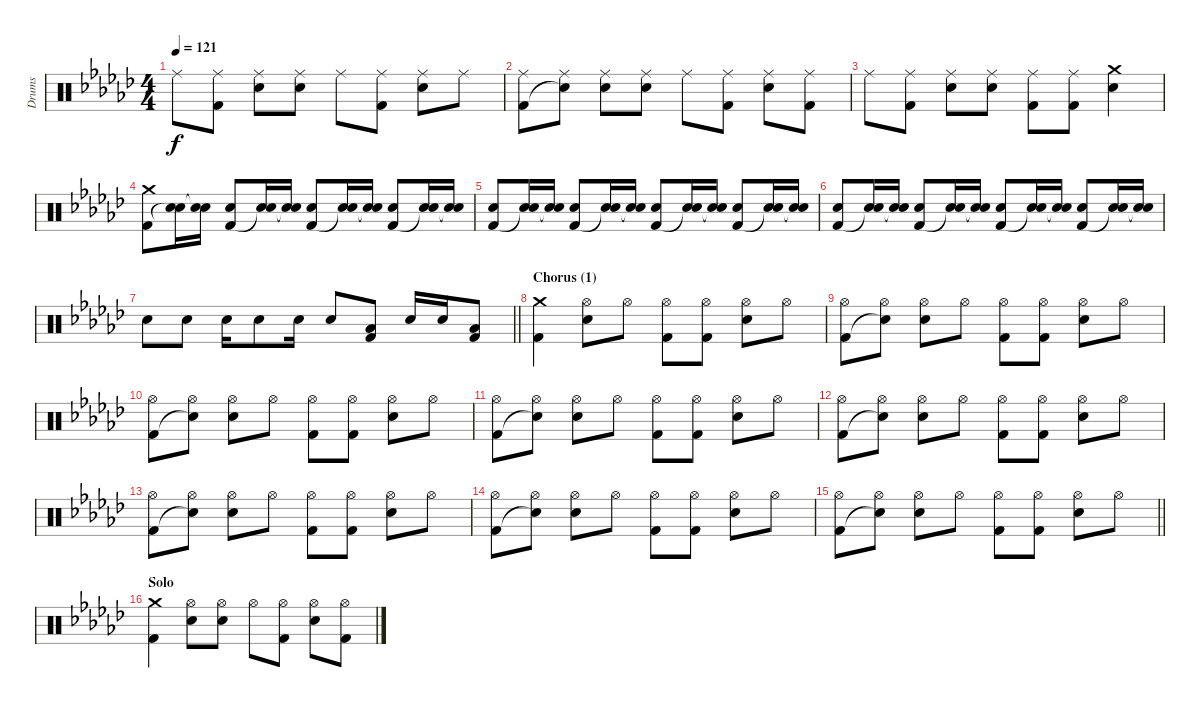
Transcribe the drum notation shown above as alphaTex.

\track ("Drums" "Drums") {instrument percussion}
\staff {score}
\articulation defaults
\ts (4 4)
\tempo 121
\clef neutral
\ks ebminor "Ride (middle)".8{dy f}
("Ride (middle)" "Kick (hit) 2").8 ("Ride (middle)" "Electric Snare (hit)").8 ("Ride (middle)" "Electric Snare (hit)").8 "Ride (middle)".8 ("Ride (middle)" "Kick (hit) 2").8 ("Ride (middle)" "Electric Snare (hit)").8 "Ride (middle)".8 |
("Ride (middle)" "Kick (hit) 2").8 ("Ride (middle)" "Snare (hit)"{t}).8 ("Ride (middle)" "Electric Snare (hit)").8 ("Ride (middle)" "Electric Snare (hit)").8 "Ride (middle)".8 ("Ride (middle)" "Kick (hit) 2").8 ("Ride (middle)" "Electric Snare (hit)").8 ("Ride (middle)" "Kick (hit) 2").8 |
"Ride (middle)".8 ("Ride (middle)" "Kick (hit) 2").8 ("Ride (middle)" "Electric Snare (hit)").8 ("Ride (middle)" "Electric Snare (hit)").8 ("Ride (middle)" "Kick (hit) 2").8 ("Ride (middle)" "Kick (hit) 2").8 ("Crash medium (hit)" "Electric Snare (hit)").4 |
("Crash medium (hit)" "Kick (hit) 2").8 ("Electric Snare (hit)" "Snare (hit)"{t}).16 ("Electric Snare (hit)" "Snare (hit)"{t}).16 ("Electric Snare (hit)" "Kick (hit) 2").8 ("Electric Snare (hit)" "Snare (hit)"{t}).16 ("Electric Snare (hit)" "Snare (hit)"{t}).16 ("Electric Snare (hit)" "Kick (hit) 2").8 ("Electric Snare (hit)" "Snare (hit)"{t}).16 ("Electric Snare (hit)" "Snare (hit)"{t}).16 ("Electric Snare (hit)" "Kick (hit) 2").8 ("Electric Snare (hit)" "Snare (hit)"{t}).16 ("Electric Snare (hit)" "Snare (hit)"{t}).16 |
("Electric Snare (hit)" "Kick (hit) 2").8 ("Electric Snare (hit)" "Snare (hit)"{t}).16 ("Electric Snare (hit)" "Snare (hit)"{t}).16 ("Electric Snare (hit)" "Kick (hit) 2").8 ("Electric Snare (hit)" "Snare (hit)"{t}).16 ("Electric Snare (hit)" "Snare (hit)"{t}).16 ("Electric Snare (hit)" "Kick (hit) 2").8 ("Electric Snare (hit)" "Snare (hit)"{t}).16 ("Electric Snare (hit)" "Snare (hit)"{t}).16 ("Electric Snare (hit)" "Kick (hit) 2").8 ("Electric Snare (hit)" "Snare (hit)"{t}).16 ("Electric Snare (hit)" "Snare (hit)"{t}).16 |
("Electric Snare (hit)" "Kick (hit) 2").8 ("Electric Snare (hit)" "Snare (hit)"{t}).16 ("Electric Snare (hit)" "Snare (hit)"{t}).16 ("Electric Snare (hit)" "Kick (hit) 2").8 ("Electric Snare (hit)" "Snare (hit)"{t}).16 ("Electric Snare (hit)" "Snare (hit)"{t}).16 ("Electric Snare (hit)" "Kick (hit) 2").8 ("Electric Snare (hit)" "Snare (hit)"{t}).16 ("Electric Snare (hit)" "Snare (hit)"{t}).16 ("Electric Snare (hit)" "Kick (hit) 2").8 ("Electric Snare (hit)" "Snare (hit)"{t}).16 ("Electric Snare (hit)" "Snare (hit)"{t}).16 |
\barLineRight lightlight "Electric Snare (hit)".8 "Electric Snare (hit)".8 "Electric Snare (hit)".16 "Electric Snare (hit)".8 "Electric Snare (hit)".16 "Electric Snare (hit)".8
("Low Floor Tom (hit)" "Kick (hit) 2").8 "Electric Snare (hit)".16 "Electric Snare (hit)".16 ("Low Floor Tom (hit)" "Kick (hit) 2").8 |
\section ("" "Chorus (1)")
("Crash medium (hit)" "Kick (hit) 2").4 ("Hi-Hat (open)" "Electric Snare (hit)").8 "Hi-Hat (open)".8 ("Hi-Hat (open)" "Kick (hit) 2").8 ("Hi-Hat (open)" "Kick (hit) 2").8 ("Hi-Hat (open)" "Electric Snare (hit)").8 "Hi-Hat (open)".8 |
("Hi-Hat (open)" "Kick (hit) 2").8 ("Hi-Hat (open)" "Snare (hit)"{t}).8 ("Hi-Hat (open)" "Electric Snare (hit)").8 "Hi-Hat (open)".8 ("Hi-Hat (open)" "Kick (hit) 2").8 ("Hi-Hat (open)" "Kick (hit) 2").8 ("Hi-Hat (open)" "Electric Snare (hit)").8 "Hi-Hat (open)".8 |
("Hi-Hat (open)" "Kick (hit) 2").8 ("Hi-Hat (open)" "Snare (hit)"{t}).8 ("Hi-Hat (open)" "Electric Snare (hit)").8 "Hi-Hat (open)".8 ("Hi-Hat (open)" "Kick (hit) 2").8 ("Hi-Hat (open)" "Kick (hit) 2").8 ("Hi-Hat (open)" "Electric Snare (hit)").8 "Hi-Hat (open)".8 |
("Hi-Hat (open)" "Kick (hit) 2").8 ("Hi-Hat (open)" "Snare (hit)"{t}).8 ("Hi-Hat (open)" "Electric Snare (hit)").8 "Hi-Hat (open)".8 ("Hi-Hat (open)" "Kick (hit) 2").8 ("Hi-Hat (open)" "Kick (hit) 2").8 ("Hi-Hat (open)" "Electric Snare (hit)").8 "Hi-Hat (open)".8 |
("Hi-Hat (open)" "Kick (hit) 2").8 ("Hi-Hat (open)" "Snare (hit)"{t}).8 ("Hi-Hat (open)" "Electric Snare (hit)").8 "Hi-Hat (open)".8 ("Hi-Hat (open)" "Kick (hit) 2").8 ("Hi-Hat (open)" "Kick (hit) 2").8 ("Hi-Hat (open)" "Electric Snare (hit)").8 "Hi-Hat (open)".8 |
("Hi-Hat (open)" "Kick (hit) 2").8 ("Hi-Hat (open)" "Snare (hit)"{t}).8 ("Hi-Hat (open)" "Electric Snare (hit)").8 "Hi-Hat (open)".8 ("Hi-Hat (open)" "Kick (hit) 2").8 ("Hi-Hat (open)" "Kick (hit) 2").8 ("Hi-Hat (open)" "Electric Snare (hit)").8 "Hi-Hat (open)".8 |
("Hi-Hat (open)" "Kick (hit) 2").8 ("Hi-Hat (open)" "Snare (hit)"{t}).8 ("Hi-Hat (open)" "Electric Snare (hit)").8 "Hi-Hat (open)".8 ("Hi-Hat (open)" "Kick (hit) 2").8 ("Hi-Hat (open)" "Kick (hit) 2").8 ("Hi-Hat (open)" "Electric Snare (hit)").8 "Hi-Hat (open)".8 |
\barLineRight lightlight
("Hi-Hat (open)" "Kick (hit) 2").8 ("Hi-Hat (open)" "Snare (hit)"{t}).8 ("Hi-Hat (open)" "Electric Snare (hit)").8 "Hi-Hat (open)".8 ("Hi-Hat (open)" "Kick (hit) 2").8 ("Hi-Hat (open)" "Kick (hit) 2").8 ("Hi-Hat (open)" "Electric Snare (hit)").8 "Hi-Hat (open)".8 |
\section ("" "Solo")
("Crash medium (hit)" "Kick (hit) 2").4 ("Hi-Hat (open)" "Electric Snare (hit)").8 ("Hi-Hat (open)" "Electric Snare (hit)").8 "Hi-Hat (open)".8 ("Hi-Hat (open)" "Kick (hit) 2").8 ("Hi-Hat (open)" "Electric Snare (hit)").8 ("Hi-Hat (open)" "Kick (hit) 2").8
